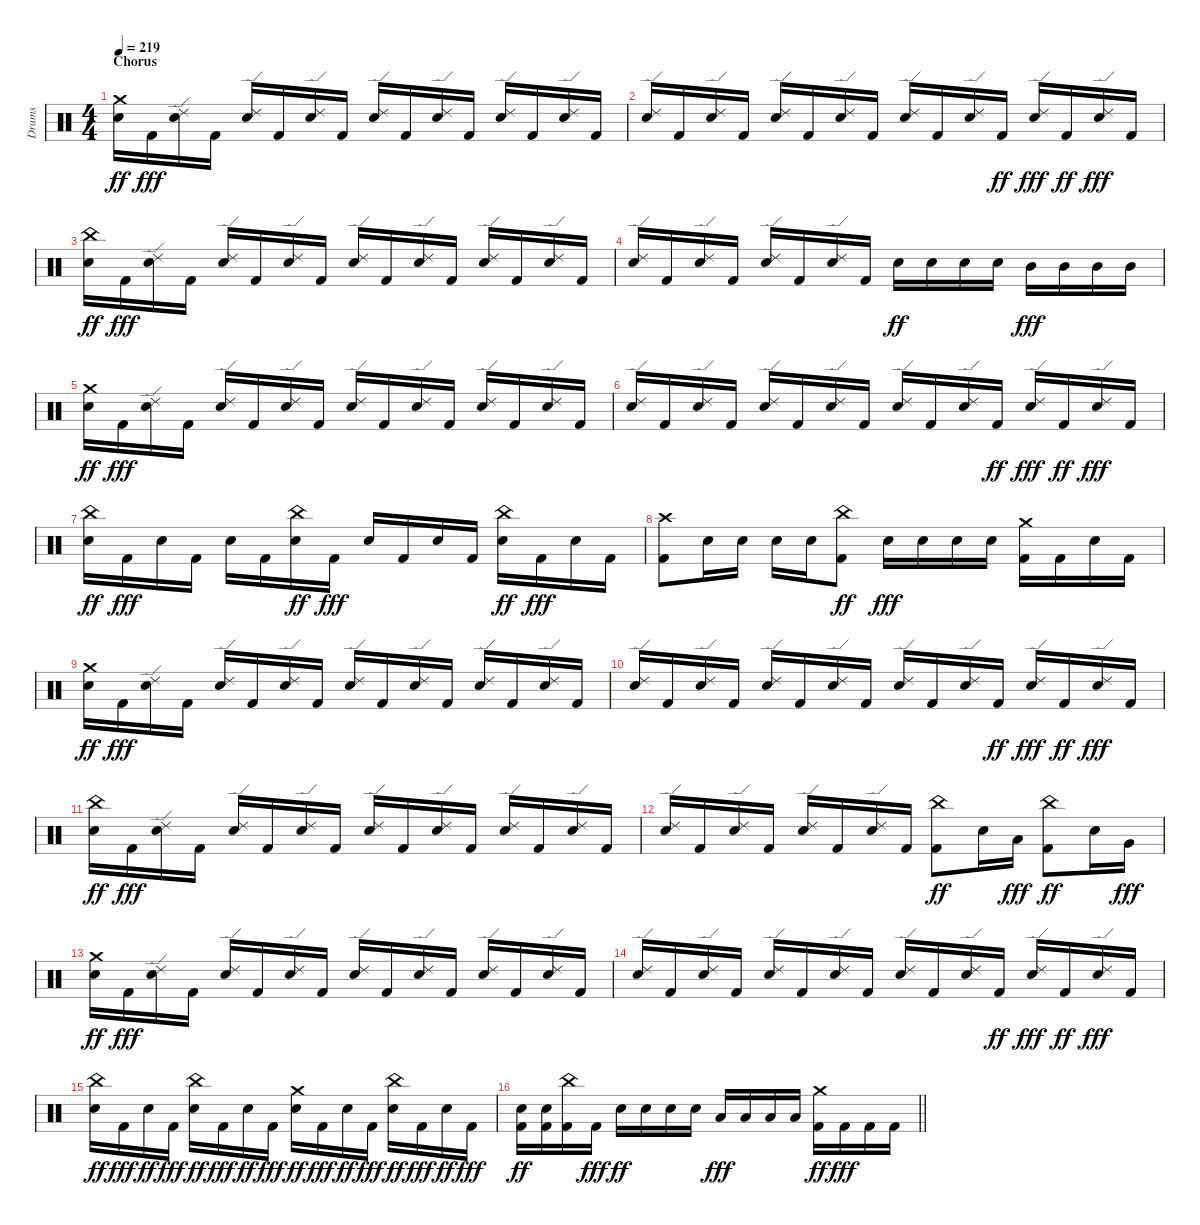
\track ("Drums" "Drums") {instrument percussion}
\staff {score}
\articulation defaults
\ts (4 4)
\section ("" "Chorus")
\tempo 219
\clef neutral
\ks c
("Snare (hit) 2" "Crash medium (hit)").16{dy ff} "Kick (hit) 2".16{dy fff} ("Snare (hit) 2" "Ride (edge) 2").16 "Kick (hit) 2".16 ("Snare (hit) 2" "Ride (edge) 2").16 "Kick (hit) 2".16 ("Snare (hit) 2" "Ride (edge) 2").16 "Kick (hit) 2".16 ("Snare (hit) 2" "Ride (edge) 2").16 "Kick (hit) 2".16 ("Snare (hit) 2" "Ride (edge) 2").16 "Kick (hit) 2".16 ("Snare (hit) 2" "Ride (edge) 2").16 "Kick (hit) 2".16 ("Snare (hit) 2" "Ride (edge) 2").16 "Kick (hit) 2".16 |
("Snare (hit) 2" "Ride (edge) 2").16 "Kick (hit) 2".16 ("Snare (hit) 2" "Ride (edge) 2").16 "Kick (hit) 2".16 ("Snare (hit) 2" "Ride (edge) 2").16 "Kick (hit) 2".16 ("Snare (hit) 2" "Ride (edge) 2").16 "Kick (hit) 2".16 ("Snare (hit) 2" "Ride (edge) 2").16 "Kick (hit) 2".16 ("Snare (hit) 2" "Ride (edge) 2").16 "Kick (hit) 2".16{dy ff} ("Snare (hit) 2" "Ride (edge) 2").16{dy fff} "Kick (hit) 2".16{dy ff} ("Snare (hit) 2" "Ride (edge) 2").16{dy fff} "Kick (hit) 2".16 |
("Snare (hit) 2" "China (hit)").16{dy ff} "Kick (hit) 2".16{dy fff} ("Snare (hit) 2" "Ride (edge) 2").16 "Kick (hit) 2".16 ("Snare (hit) 2" "Ride (edge) 2").16 "Kick (hit) 2".16 ("Snare (hit) 2" "Ride (edge) 2").16 "Kick (hit) 2".16 ("Snare (hit) 2" "Ride (edge) 2").16 "Kick (hit) 2".16 ("Snare (hit) 2" "Ride (edge) 2").16 "Kick (hit) 2".16 ("Snare (hit) 2" "Ride (edge) 2").16 "Kick (hit) 2".16 ("Snare (hit) 2" "Ride (edge) 2").16 "Kick (hit) 2".16 |
("Snare (hit) 2" "Ride (edge) 2").16 "Kick (hit) 2".16 ("Snare (hit) 2" "Ride (edge) 2").16 "Kick (hit) 2".16 ("Snare (hit) 2" "Ride (edge) 2").16 "Kick (hit) 2".16 ("Snare (hit) 2" "Ride (edge) 2").16 "Kick (hit) 2".16 "Snare (hit) 2".16{dy ff} "Snare (hit) 2".16 "Snare (hit) 2".16 "Snare (hit) 2".16 "Mid Tom (hit)".16{dy fff} "Mid Tom (hit)".16 "Mid Tom (hit)".16 "Mid Tom (hit)".16 |
("Snare (hit) 2" "Crash medium (hit)").16{dy ff} "Kick (hit) 2".16{dy fff} ("Snare (hit) 2" "Ride (edge) 2").16 "Kick (hit) 2".16 ("Snare (hit) 2" "Ride (edge) 2").16 "Kick (hit) 2".16 ("Snare (hit) 2" "Ride (edge) 2").16 "Kick (hit) 2".16 ("Snare (hit) 2" "Ride (edge) 2").16 "Kick (hit) 2".16 ("Snare (hit) 2" "Ride (edge) 2").16 "Kick (hit) 2".16 ("Snare (hit) 2" "Ride (edge) 2").16 "Kick (hit) 2".16 ("Snare (hit) 2" "Ride (edge) 2").16 "Kick (hit) 2".16 |
("Snare (hit) 2" "Ride (edge) 2").16 "Kick (hit) 2".16 ("Snare (hit) 2" "Ride (edge) 2").16 "Kick (hit) 2".16 ("Snare (hit) 2" "Ride (edge) 2").16 "Kick (hit) 2".16 ("Snare (hit) 2" "Ride (edge) 2").16 "Kick (hit) 2".16 ("Snare (hit) 2" "Ride (edge) 2").16 "Kick (hit) 2".16 ("Snare (hit) 2" "Ride (edge) 2").16 "Kick (hit) 2".16{dy ff} ("Snare (hit) 2" "Ride (edge) 2").16{dy fff} "Kick (hit) 2".16{dy ff} ("Snare (hit) 2" "Ride (edge) 2").16{dy fff} "Kick (hit) 2".16 |
("Snare (hit) 2" "China (hit)").16{dy ff} "Kick (hit) 2".16{dy fff} "Snare (hit) 2".16 "Kick (hit) 2".16 "Snare (hit) 2".16 "Kick (hit) 2".16 ("Snare (hit) 2" "China (hit)").16{dy ff} "Kick (hit) 2".16{dy fff} "Snare (hit) 2".16 "Kick (hit) 2".16 "Snare (hit) 2".16 "Kick (hit) 2".16 ("Snare (hit) 2" "China (hit)").16{dy ff} "Kick (hit) 2".16{dy fff} "Snare (hit) 2".16 "Kick (hit) 2".16 |
("Kick (hit) 2" "Crash high (hit)").8 "Snare (hit) 2".16 "Snare (hit) 2".16 "Snare (hit) 2".16 "Snare (hit) 2".16 ("Kick (hit) 2" "China (hit)").8{dy ff} "Snare (hit) 2".16{dy fff} "Snare (hit) 2".16 "Snare (hit) 2".16 "Snare (hit) 2".16 ("Kick (hit) 2" "Crash medium (hit)").16 "Kick (hit) 2".16 "Snare (hit) 2".16 "Kick (hit) 2".16 |
("Snare (hit) 2" "Crash medium (hit)").16{dy ff} "Kick (hit) 2".16{dy fff} ("Snare (hit) 2" "Ride (edge) 2").16 "Kick (hit) 2".16 ("Snare (hit) 2" "Ride (edge) 2").16 "Kick (hit) 2".16 ("Snare (hit) 2" "Ride (edge) 2").16 "Kick (hit) 2".16 ("Snare (hit) 2" "Ride (edge) 2").16 "Kick (hit) 2".16 ("Snare (hit) 2" "Ride (edge) 2").16 "Kick (hit) 2".16 ("Snare (hit) 2" "Ride (edge) 2").16 "Kick (hit) 2".16 ("Snare (hit) 2" "Ride (edge) 2").16 "Kick (hit) 2".16 |
("Snare (hit) 2" "Ride (edge) 2").16 "Kick (hit) 2".16 ("Snare (hit) 2" "Ride (edge) 2").16 "Kick (hit) 2".16 ("Snare (hit) 2" "Ride (edge) 2").16 "Kick (hit) 2".16 ("Snare (hit) 2" "Ride (edge) 2").16 "Kick (hit) 2".16 ("Snare (hit) 2" "Ride (edge) 2").16 "Kick (hit) 2".16 ("Snare (hit) 2" "Ride (edge) 2").16 "Kick (hit) 2".16{dy ff} ("Snare (hit) 2" "Ride (edge) 2").16{dy fff} "Kick (hit) 2".16{dy ff} ("Snare (hit) 2" "Ride (edge) 2").16{dy fff} "Kick (hit) 2".16 |
("Snare (hit) 2" "China (hit)").16{dy ff} "Kick (hit) 2".16{dy fff} ("Snare (hit) 2" "Ride (edge) 2").16 "Kick (hit) 2".16 ("Snare (hit) 2" "Ride (edge) 2").16 "Kick (hit) 2".16 ("Snare (hit) 2" "Ride (edge) 2").16 "Kick (hit) 2".16 ("Snare (hit) 2" "Ride (edge) 2").16 "Kick (hit) 2".16 ("Snare (hit) 2" "Ride (edge) 2").16 "Kick (hit) 2".16 ("Snare (hit) 2" "Ride (edge) 2").16 "Kick (hit) 2".16 ("Snare (hit) 2" "Ride (edge) 2").16 "Kick (hit) 2".16 |
("Snare (hit) 2" "Ride (edge) 2").16 "Kick (hit) 2".16 ("Snare (hit) 2" "Ride (edge) 2").16 "Kick (hit) 2".16 ("Snare (hit) 2" "Ride (edge) 2").16 "Kick (hit) 2".16 ("Snare (hit) 2" "Ride (edge) 2").16 "Kick (hit) 2".16 ("Kick (hit) 2" "China (hit)").8{dy ff} "Snare (hit) 2".16 "Low Tom (hit)".16{dy fff} ("Kick (hit) 2" "China (hit)").8{dy ff} "Snare (hit) 2".16 "Very Low Tom (hit)".16{dy fff} |
("Snare (hit) 2" "Crash medium (hit)").16{dy ff} "Kick (hit) 2".16{dy fff} ("Snare (hit) 2" "Ride (edge) 2").16 "Kick (hit) 2".16 ("Snare (hit) 2" "Ride (edge) 2").16 "Kick (hit) 2".16 ("Snare (hit) 2" "Ride (edge) 2").16 "Kick (hit) 2".16 ("Snare (hit) 2" "Ride (edge) 2").16 "Kick (hit) 2".16 ("Snare (hit) 2" "Ride (edge) 2").16 "Kick (hit) 2".16 ("Snare (hit) 2" "Ride (edge) 2").16 "Kick (hit) 2".16 ("Snare (hit) 2" "Ride (edge) 2").16 "Kick (hit) 2".16 |
("Snare (hit) 2" "Ride (edge) 2").16 "Kick (hit) 2".16 ("Snare (hit) 2" "Ride (edge) 2").16 "Kick (hit) 2".16 ("Snare (hit) 2" "Ride (edge) 2").16 "Kick (hit) 2".16 ("Snare (hit) 2" "Ride (edge) 2").16 "Kick (hit) 2".16 ("Snare (hit) 2" "Ride (edge) 2").16 "Kick (hit) 2".16 ("Snare (hit) 2" "Ride (edge) 2").16 "Kick (hit) 2".16{dy ff} ("Snare (hit) 2" "Ride (edge) 2").16{dy fff} "Kick (hit) 2".16{dy ff} ("Snare (hit) 2" "Ride (edge) 2").16{dy fff} "Kick (hit) 2".16 |
("Snare (hit) 2" "China (hit)").16{dy ff} "Kick (hit) 2".16{dy fff} "Snare (hit) 2".16{dy ff} "Kick (hit) 2".16{dy fff} ("Snare (hit) 2" "China (hit)").16{dy ff} "Kick (hit) 2".16{dy fff} "Snare (hit) 2".16{dy ff} "Kick (hit) 2".16{dy fff} ("Snare (hit) 2" "Crash medium (hit)").16{dy ff} "Kick (hit) 2".16{dy fff} "Snare (hit) 2".16{dy ff} "Kick (hit) 2".16{dy fff} ("Snare (hit) 2" "China (hit)").16{dy ff} "Kick (hit) 2".16{dy fff} "Snare (hit) 2".16{dy ff} "Kick (hit) 2".16{dy fff} |
\barLineRight lightlight
("Kick (hit) 2" "Snare (hit) 2").16{dy ff} ("Kick (hit) 2" "Snare (hit) 2").16 ("Kick (hit) 2" "China (hit)").16 "Kick (hit) 2".16{dy fff} "Snare (hit) 2".16{dy ff} "Snare (hit) 2".16 "Snare (hit) 2".16 "Snare (hit) 2".16 "Low Tom (hit)".16{dy fff} "Low Tom (hit)".16 "Low Tom (hit)".16 "Low Tom (hit)".16 ("Kick (hit) 2" "Crash medium (hit)").16{dy ff} "Kick (hit) 2".16{dy fff} "Kick (hit) 2".16 "Kick (hit) 2".16
